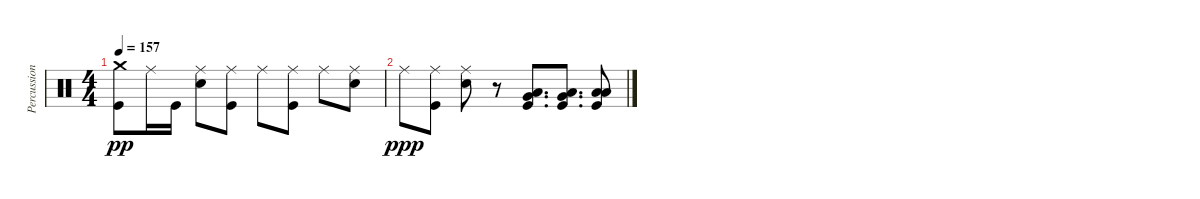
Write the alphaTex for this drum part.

\track ("Percussion" "Percussion") {instrument percussion}
\staff {score}
\articulation defaults
\ts (4 4)
\tempo 157
\clef neutral
\ks c
("Crash medium (hit)" "Kick (hit)").8{dy pp} "Ride (middle)".16 "Kick (hit)".16 ("Ride (middle)" "Snare (hit) 2").8 ("Ride (middle)" "Kick (hit)").8 "Ride (middle)".8 ("Ride (middle)" "Kick (hit)").8 "Ride (middle)".8 ("Ride (middle)" "Snare (hit) 2").8 |
"Ride (middle)".8{dy ppp} ("Ride (middle)" "Kick (hit)").8 ("Ride (middle)" "Snare (hit) 2").8 r.8 ("Low Tom (hit)" "Very Low Tom (hit)" "Kick (hit)").8{d} ("Low Tom (hit)" "Very Low Tom (hit)" "Kick (hit)").8{d} ("Low Tom (hit)" "Low Floor Tom (hit)" "Kick (hit)").8
